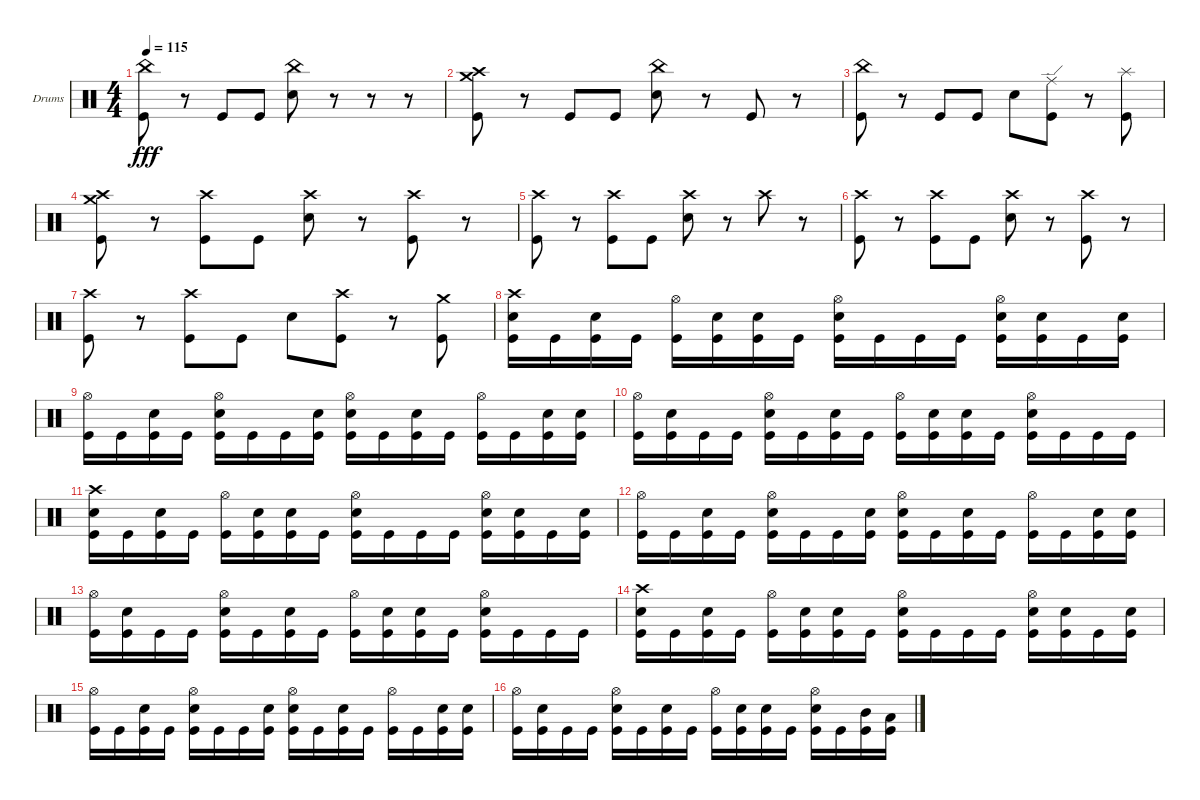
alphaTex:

\bracketExtendMode groupsimilarinstruments
\firstSystemTrackNameOrientation horizontal
\otherSystemsTrackNameOrientation horizontal
\track ("Drumkit" "Drums") {instrument percussion}
\staff {score}
\articulation defaults
\ts (4 4)
\tempo 115
\clef neutral
\ks c
("China (hit)" "Kick (hit)").8{dy fff} r.8 "Kick (hit)".8 "Kick (hit)".8 ("China (hit)" "Snare (hit) 2").8 r.8 r.8 r.8 |
("Kick (hit)" "Crash medium (hit)" "Crash high (hit)").8 r.8 "Kick (hit)".8 "Kick (hit)".8 ("China (hit)" "Snare (hit) 2").8 r.8 "Kick (hit)".8 r.8 |
("China (hit)" "Kick (hit)").8 r.8 "Kick (hit)".8 "Kick (hit)".8 "Snare (hit) 2".8 ("Kick (hit)" "Ride (edge)").8 r.8 ("Kick (hit)" "Splash (hit)").8 |
("Kick (hit)" "Crash medium (hit)" "Crash high (hit)").8 r.8 ("Kick (hit)" "Crash high (hit)").8 "Kick (hit)".8 ("Snare (hit) 2" "Crash high (hit)").8 r.8 ("Kick (hit)" "Crash high (hit)").8 r.8 |
("Kick (hit)" "Crash high (hit)").8 r.8 ("Kick (hit)" "Crash high (hit)").8 "Kick (hit)".8 ("Snare (hit) 2" "Crash high (hit)").8 r.8 "Crash high (hit)".8 r.8 |
("Kick (hit)" "Crash high (hit)").8 r.8 ("Kick (hit)" "Crash high (hit)").8 "Kick (hit)".8 ("Snare (hit) 2" "Crash high (hit)").8 r.8 ("Kick (hit)" "Crash high (hit)").8 r.8 |
("Kick (hit)" "Crash high (hit)").8 r.8 ("Kick (hit)" "Crash high (hit)").8 "Kick (hit)".8 "Snare (hit) 2".8 ("Kick (hit)" "Crash high (hit)").8 r.8 ("Kick (hit)" "Crash medium (hit)").8 |
("Snare (hit) 2" "Kick (hit)" "Crash high (hit)").16 "Kick (hit)".16 ("Snare (hit) 2" "Kick (hit)").16 "Kick (hit)".16 ("Kick (hit)" "Hi-Hat (open)").16 ("Snare (hit) 2" "Kick (hit)").16 ("Snare (hit) 2" "Kick (hit)").16 "Kick (hit)".16 ("Snare (hit) 2" "Kick (hit)" "Hi-Hat (open)").16 "Kick (hit)".16 "Kick (hit)".16 "Kick (hit)".16 ("Snare (hit) 2" "Kick (hit)" "Hi-Hat (open)").16 ("Snare (hit) 2" "Kick (hit)").16 "Kick (hit)".16 ("Snare (hit) 2" "Kick (hit)").16 |
("Kick (hit)" "Hi-Hat (open)").16 "Kick (hit)".16 ("Snare (hit) 2" "Kick (hit)").16 "Kick (hit)".16 ("Snare (hit) 2" "Kick (hit)" "Hi-Hat (open)").16 "Kick (hit)".16 "Kick (hit)".16 ("Snare (hit) 2" "Kick (hit)").16 ("Snare (hit) 2" "Kick (hit)" "Hi-Hat (open)").16 "Kick (hit)".16 ("Snare (hit) 2" "Kick (hit)").16 "Kick (hit)".16 ("Kick (hit)" "Hi-Hat (open)").16 "Kick (hit)".16 ("Snare (hit) 2" "Kick (hit)").16 ("Snare (hit) 2" "Kick (hit)").16 |
("Kick (hit)" "Hi-Hat (open)").16 ("Snare (hit) 2" "Kick (hit)").16 "Kick (hit)".16 "Kick (hit)".16 ("Snare (hit) 2" "Kick (hit)" "Hi-Hat (open)").16 "Kick (hit)".16 ("Snare (hit) 2" "Kick (hit)").16 "Kick (hit)".16 ("Kick (hit)" "Hi-Hat (open)").16 ("Snare (hit) 2" "Kick (hit)").16 ("Snare (hit) 2" "Kick (hit)").16 "Kick (hit)".16 ("Snare (hit) 2" "Kick (hit)" "Hi-Hat (open)").16 "Kick (hit)".16 "Kick (hit)".16 "Kick (hit)".16 |
("Snare (hit) 2" "Kick (hit)" "Crash high (hit)").16 "Kick (hit)".16 ("Snare (hit) 2" "Kick (hit)").16 "Kick (hit)".16 ("Kick (hit)" "Hi-Hat (open)").16 ("Snare (hit) 2" "Kick (hit)").16 ("Snare (hit) 2" "Kick (hit)").16 "Kick (hit)".16 ("Snare (hit) 2" "Kick (hit)" "Hi-Hat (open)").16 "Kick (hit)".16 "Kick (hit)".16 "Kick (hit)".16 ("Snare (hit) 2" "Kick (hit)" "Hi-Hat (open)").16 ("Snare (hit) 2" "Kick (hit)").16 "Kick (hit)".16 ("Snare (hit) 2" "Kick (hit)").16 |
("Kick (hit)" "Hi-Hat (open)").16 "Kick (hit)".16 ("Snare (hit) 2" "Kick (hit)").16 "Kick (hit)".16 ("Snare (hit) 2" "Kick (hit)" "Hi-Hat (open)").16 "Kick (hit)".16 "Kick (hit)".16 ("Snare (hit) 2" "Kick (hit)").16 ("Snare (hit) 2" "Kick (hit)" "Hi-Hat (open)").16 "Kick (hit)".16 ("Snare (hit) 2" "Kick (hit)").16 "Kick (hit)".16 ("Kick (hit)" "Hi-Hat (open)").16 "Kick (hit)".16 ("Snare (hit) 2" "Kick (hit)").16 ("Snare (hit) 2" "Kick (hit)").16 |
("Kick (hit)" "Hi-Hat (open)").16 ("Snare (hit) 2" "Kick (hit)").16 "Kick (hit)".16 "Kick (hit)".16 ("Snare (hit) 2" "Kick (hit)" "Hi-Hat (open)").16 "Kick (hit)".16 ("Snare (hit) 2" "Kick (hit)").16 "Kick (hit)".16 ("Kick (hit)" "Hi-Hat (open)").16 ("Snare (hit) 2" "Kick (hit)").16 ("Snare (hit) 2" "Kick (hit)").16 "Kick (hit)".16 ("Snare (hit) 2" "Kick (hit)" "Hi-Hat (open)").16 "Kick (hit)".16 "Kick (hit)".16 "Kick (hit)".16 |
("Snare (hit) 2" "Kick (hit)" "Crash high (hit)").16 "Kick (hit)".16 ("Snare (hit) 2" "Kick (hit)").16 "Kick (hit)".16 ("Kick (hit)" "Hi-Hat (open)").16 ("Snare (hit) 2" "Kick (hit)").16 ("Snare (hit) 2" "Kick (hit)").16 "Kick (hit)".16 ("Snare (hit) 2" "Kick (hit)" "Hi-Hat (open)").16 "Kick (hit)".16 "Kick (hit)".16 "Kick (hit)".16 ("Snare (hit) 2" "Kick (hit)" "Hi-Hat (open)").16 ("Snare (hit) 2" "Kick (hit)").16 "Kick (hit)".16 ("Snare (hit) 2" "Kick (hit)").16 |
("Kick (hit)" "Hi-Hat (open)").16 "Kick (hit)".16 ("Snare (hit) 2" "Kick (hit)").16 "Kick (hit)".16 ("Snare (hit) 2" "Kick (hit)" "Hi-Hat (open)").16 "Kick (hit)".16 "Kick (hit)".16 ("Snare (hit) 2" "Kick (hit)").16 ("Snare (hit) 2" "Kick (hit)" "Hi-Hat (open)").16 "Kick (hit)".16 ("Snare (hit) 2" "Kick (hit)").16 "Kick (hit)".16 ("Kick (hit)" "Hi-Hat (open)").16 "Kick (hit)".16 ("Snare (hit) 2" "Kick (hit)").16 ("Snare (hit) 2" "Kick (hit)").16 |
("Kick (hit)" "Hi-Hat (open)").16 ("Snare (hit) 2" "Kick (hit)").16 "Kick (hit)".16 "Kick (hit)".16 ("Snare (hit) 2" "Kick (hit)" "Hi-Hat (open)").16 "Kick (hit)".16 ("Snare (hit) 2" "Kick (hit)").16 "Kick (hit)".16 ("Kick (hit)" "Hi-Hat (open)").16 ("Snare (hit) 2" "Kick (hit)").16 ("Snare (hit) 2" "Kick (hit)").16 "Kick (hit)".16 ("Snare (hit) 2" "Kick (hit)" "Hi-Hat (open)").16 "Kick (hit)".16 ("Kick (hit)" "Mid Tom (hit)").16 ("Kick (hit)" "Low Tom (hit)").16
